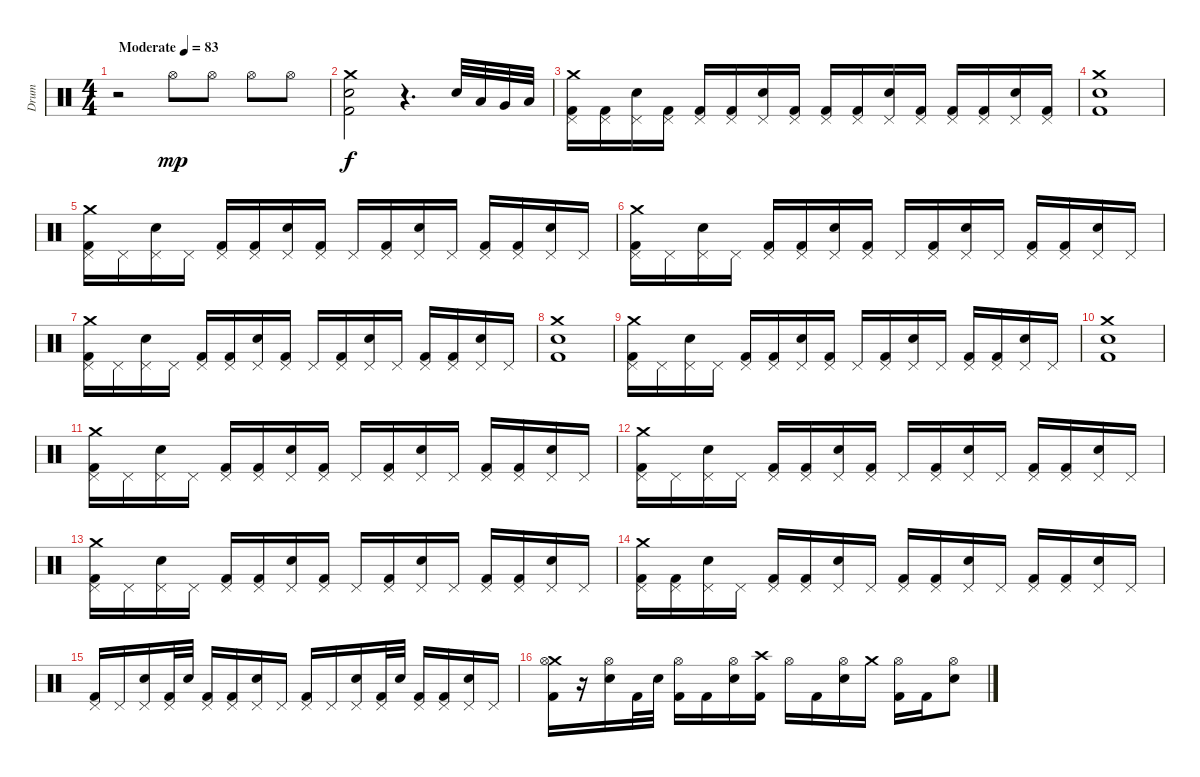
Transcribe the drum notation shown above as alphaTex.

\track ("Drum" "Drum") {instrument percussion}
\staff {score}
\articulation defaults
\ts (4 4)
\tempo (83 "Moderate")
\clef neutral
\ks c
r.2{dy mp} "Hi-Hat (open)".8 "Hi-Hat (open)".8 "Hi-Hat (open)".8 "Hi-Hat (open)".8 |
("Crash medium (hit)" "Snare (hit) 2" "Kick (hit) 2").2{dy f} r.4{d} "Snare (hit) 2".32 "Low Tom (hit)".32 "Very Low Tom (hit)".32 "Low Floor Tom (hit)".32 |
("Crash medium (hit)" "Pedal Hi-Hat (hit)" "Kick (hit) 2").16 ("Pedal Hi-Hat (hit)" "Kick (hit) 2").16 ("Snare (hit) 2" "Pedal Hi-Hat (hit)").16 ("Pedal Hi-Hat (hit)" "Kick (hit) 2").16 ("Pedal Hi-Hat (hit)" "Kick (hit) 2").16 ("Pedal Hi-Hat (hit)" "Kick (hit) 2").16 ("Snare (hit) 2" "Pedal Hi-Hat (hit)").16 ("Pedal Hi-Hat (hit)" "Kick (hit) 2").16 ("Pedal Hi-Hat (hit)" "Kick (hit) 2").16 ("Pedal Hi-Hat (hit)" "Kick (hit) 2").16 ("Snare (hit) 2" "Pedal Hi-Hat (hit)").16 ("Pedal Hi-Hat (hit)" "Kick (hit) 2").16 ("Pedal Hi-Hat (hit)" "Kick (hit) 2").16 ("Pedal Hi-Hat (hit)" "Kick (hit) 2").16 ("Snare (hit) 2" "Pedal Hi-Hat (hit)").16 ("Pedal Hi-Hat (hit)" "Kick (hit) 2").16 |
("Crash medium (hit)" "Snare (hit) 2" "Kick (hit) 2").1 |
("Crash medium (hit)" "Pedal Hi-Hat (hit)" "Kick (hit) 2").16 "Pedal Hi-Hat (hit)".16 ("Snare (hit) 2" "Pedal Hi-Hat (hit)").16 "Pedal Hi-Hat (hit)".16 ("Pedal Hi-Hat (hit)" "Kick (hit) 2").16 ("Pedal Hi-Hat (hit)" "Kick (hit) 2").16 ("Snare (hit) 2" "Pedal Hi-Hat (hit)").16 ("Pedal Hi-Hat (hit)" "Kick (hit) 2").16 "Pedal Hi-Hat (hit)".16 ("Pedal Hi-Hat (hit)" "Kick (hit) 2").16 ("Snare (hit) 2" "Pedal Hi-Hat (hit)").16 "Pedal Hi-Hat (hit)".16 ("Pedal Hi-Hat (hit)" "Kick (hit) 2").16 ("Pedal Hi-Hat (hit)" "Kick (hit) 2").16 ("Snare (hit) 2" "Pedal Hi-Hat (hit)").16 "Pedal Hi-Hat (hit)".16 |
("Crash medium (hit)" "Pedal Hi-Hat (hit)" "Kick (hit) 2").16 "Pedal Hi-Hat (hit)".16 ("Snare (hit) 2" "Pedal Hi-Hat (hit)").16 "Pedal Hi-Hat (hit)".16 ("Pedal Hi-Hat (hit)" "Kick (hit) 2").16 ("Pedal Hi-Hat (hit)" "Kick (hit) 2").16 ("Snare (hit) 2" "Pedal Hi-Hat (hit)").16 ("Pedal Hi-Hat (hit)" "Kick (hit) 2").16 "Pedal Hi-Hat (hit)".16 ("Pedal Hi-Hat (hit)" "Kick (hit) 2").16 ("Snare (hit) 2" "Pedal Hi-Hat (hit)").16 "Pedal Hi-Hat (hit)".16 ("Pedal Hi-Hat (hit)" "Kick (hit) 2").16 ("Pedal Hi-Hat (hit)" "Kick (hit) 2").16 ("Snare (hit) 2" "Pedal Hi-Hat (hit)").16 "Pedal Hi-Hat (hit)".16 |
("Crash medium (hit)" "Pedal Hi-Hat (hit)" "Kick (hit) 2").16 "Pedal Hi-Hat (hit)".16 ("Snare (hit) 2" "Pedal Hi-Hat (hit)").16 "Pedal Hi-Hat (hit)".16 ("Pedal Hi-Hat (hit)" "Kick (hit) 2").16 ("Pedal Hi-Hat (hit)" "Kick (hit) 2").16 ("Snare (hit) 2" "Pedal Hi-Hat (hit)").16 ("Pedal Hi-Hat (hit)" "Kick (hit) 2").16 "Pedal Hi-Hat (hit)".16 ("Pedal Hi-Hat (hit)" "Kick (hit) 2").16 ("Snare (hit) 2" "Pedal Hi-Hat (hit)").16 "Pedal Hi-Hat (hit)".16 ("Pedal Hi-Hat (hit)" "Kick (hit) 2").16 ("Pedal Hi-Hat (hit)" "Kick (hit) 2").16 ("Snare (hit) 2" "Pedal Hi-Hat (hit)").16 "Pedal Hi-Hat (hit)".16 |
("Crash medium (hit)" "Snare (hit) 2" "Kick (hit) 2").1 |
("Crash medium (hit)" "Pedal Hi-Hat (hit)" "Kick (hit) 2").16 "Pedal Hi-Hat (hit)".16 ("Snare (hit) 2" "Pedal Hi-Hat (hit)").16 "Pedal Hi-Hat (hit)".16 ("Pedal Hi-Hat (hit)" "Kick (hit) 2").16 ("Pedal Hi-Hat (hit)" "Kick (hit) 2").16 ("Snare (hit) 2" "Pedal Hi-Hat (hit)").16 ("Pedal Hi-Hat (hit)" "Kick (hit) 2").16 "Pedal Hi-Hat (hit)".16 ("Pedal Hi-Hat (hit)" "Kick (hit) 2").16 ("Snare (hit) 2" "Pedal Hi-Hat (hit)").16 "Pedal Hi-Hat (hit)".16 ("Pedal Hi-Hat (hit)" "Kick (hit) 2").16 ("Pedal Hi-Hat (hit)" "Kick (hit) 2").16 ("Snare (hit) 2" "Pedal Hi-Hat (hit)").16 "Pedal Hi-Hat (hit)".16 |
("Crash medium (hit)" "Snare (hit) 2" "Kick (hit) 2").1 |
("Crash medium (hit)" "Pedal Hi-Hat (hit)" "Kick (hit) 2").16 "Pedal Hi-Hat (hit)".16 ("Snare (hit) 2" "Pedal Hi-Hat (hit)").16 "Pedal Hi-Hat (hit)".16 ("Pedal Hi-Hat (hit)" "Kick (hit) 2").16 ("Pedal Hi-Hat (hit)" "Kick (hit) 2").16 ("Snare (hit) 2" "Pedal Hi-Hat (hit)").16 ("Pedal Hi-Hat (hit)" "Kick (hit) 2").16 "Pedal Hi-Hat (hit)".16 ("Pedal Hi-Hat (hit)" "Kick (hit) 2").16 ("Snare (hit) 2" "Pedal Hi-Hat (hit)").16 "Pedal Hi-Hat (hit)".16 ("Pedal Hi-Hat (hit)" "Kick (hit) 2").16 ("Pedal Hi-Hat (hit)" "Kick (hit) 2").16 ("Snare (hit) 2" "Pedal Hi-Hat (hit)").16 "Pedal Hi-Hat (hit)".16 |
("Crash medium (hit)" "Pedal Hi-Hat (hit)" "Kick (hit) 2").16 "Pedal Hi-Hat (hit)".16 ("Snare (hit) 2" "Pedal Hi-Hat (hit)").16 "Pedal Hi-Hat (hit)".16 ("Pedal Hi-Hat (hit)" "Kick (hit) 2").16 ("Pedal Hi-Hat (hit)" "Kick (hit) 2").16 ("Snare (hit) 2" "Pedal Hi-Hat (hit)").16 ("Pedal Hi-Hat (hit)" "Kick (hit) 2").16 "Pedal Hi-Hat (hit)".16 ("Pedal Hi-Hat (hit)" "Kick (hit) 2").16 ("Snare (hit) 2" "Pedal Hi-Hat (hit)").16 "Pedal Hi-Hat (hit)".16 ("Pedal Hi-Hat (hit)" "Kick (hit) 2").16 ("Pedal Hi-Hat (hit)" "Kick (hit) 2").16 ("Snare (hit) 2" "Pedal Hi-Hat (hit)").16 "Pedal Hi-Hat (hit)".16 |
("Crash medium (hit)" "Pedal Hi-Hat (hit)" "Kick (hit) 2").16 "Pedal Hi-Hat (hit)".16 ("Snare (hit) 2" "Pedal Hi-Hat (hit)").16 "Pedal Hi-Hat (hit)".16 ("Pedal Hi-Hat (hit)" "Kick (hit) 2").16 ("Pedal Hi-Hat (hit)" "Kick (hit) 2").16 ("Snare (hit) 2" "Pedal Hi-Hat (hit)").16 ("Pedal Hi-Hat (hit)" "Kick (hit) 2").16 "Pedal Hi-Hat (hit)".16 ("Pedal Hi-Hat (hit)" "Kick (hit) 2").16 ("Snare (hit) 2" "Pedal Hi-Hat (hit)").16 "Pedal Hi-Hat (hit)".16 ("Pedal Hi-Hat (hit)" "Kick (hit) 2").16 ("Pedal Hi-Hat (hit)" "Kick (hit) 2").16 ("Snare (hit) 2" "Pedal Hi-Hat (hit)").16 "Pedal Hi-Hat (hit)".16 |
("Crash medium (hit)" "Pedal Hi-Hat (hit)" "Kick (hit) 2").16 ("Pedal Hi-Hat (hit)" "Kick (hit) 2").16 ("Snare (hit) 2" "Pedal Hi-Hat (hit)").16 "Pedal Hi-Hat (hit)".16 ("Pedal Hi-Hat (hit)" "Kick (hit) 2").16 ("Pedal Hi-Hat (hit)" "Kick (hit) 2").16 ("Snare (hit) 2" "Pedal Hi-Hat (hit)").16 "Pedal Hi-Hat (hit)".16 ("Pedal Hi-Hat (hit)" "Kick (hit) 2").16 ("Pedal Hi-Hat (hit)" "Kick (hit) 2").16 ("Snare (hit) 2" "Pedal Hi-Hat (hit)").16 "Pedal Hi-Hat (hit)".16 ("Pedal Hi-Hat (hit)" "Kick (hit) 2").16 ("Pedal Hi-Hat (hit)" "Kick (hit) 2").16 ("Snare (hit) 2" "Pedal Hi-Hat (hit)").16 "Pedal Hi-Hat (hit)".16 |
("Pedal Hi-Hat (hit)" "Kick (hit) 2").16 "Pedal Hi-Hat (hit)".16 ("Snare (hit) 2" "Pedal Hi-Hat (hit)").16 ("Pedal Hi-Hat (hit)" "Kick (hit) 2").32 "Snare (hit) 2".32 ("Pedal Hi-Hat (hit)" "Kick (hit) 2").16 ("Pedal Hi-Hat (hit)" "Kick (hit) 2").16 ("Snare (hit) 2" "Pedal Hi-Hat (hit)").16 "Pedal Hi-Hat (hit)".16 ("Pedal Hi-Hat (hit)" "Kick (hit) 2").16 "Pedal Hi-Hat (hit)".16 ("Snare (hit) 2" "Pedal Hi-Hat (hit)").16 ("Pedal Hi-Hat (hit)" "Kick (hit) 2").32 "Snare (hit) 2".32 ("Pedal Hi-Hat (hit)" "Kick (hit) 2").16 ("Pedal Hi-Hat (hit)" "Kick (hit) 2").16 ("Snare (hit) 2" "Pedal Hi-Hat (hit)").16 "Pedal Hi-Hat (hit)".16 |
("Crash medium (hit)" "Hi-Hat (open)" "Kick (hit) 2").16 r.16 ("Hi-Hat (open)" "Snare (hit) 2").16 "Kick (hit) 2".32 "Snare (hit) 2".32 ("Hi-Hat (open)" "Kick (hit) 2").16 "Kick (hit) 2".16 ("Hi-Hat (open)" "Snare (hit) 2").16 ("Crash high (hit)" "Kick (hit) 2").16 "Hi-Hat (open)".16 "Kick (hit) 2".16 ("Hi-Hat (open)" "Snare (hit) 2").16 "Crash medium (hit)".16 ("Hi-Hat (open)" "Kick (hit) 2").16 "Kick (hit) 2".16 ("Hi-Hat (open)" "Snare (hit) 2").8
